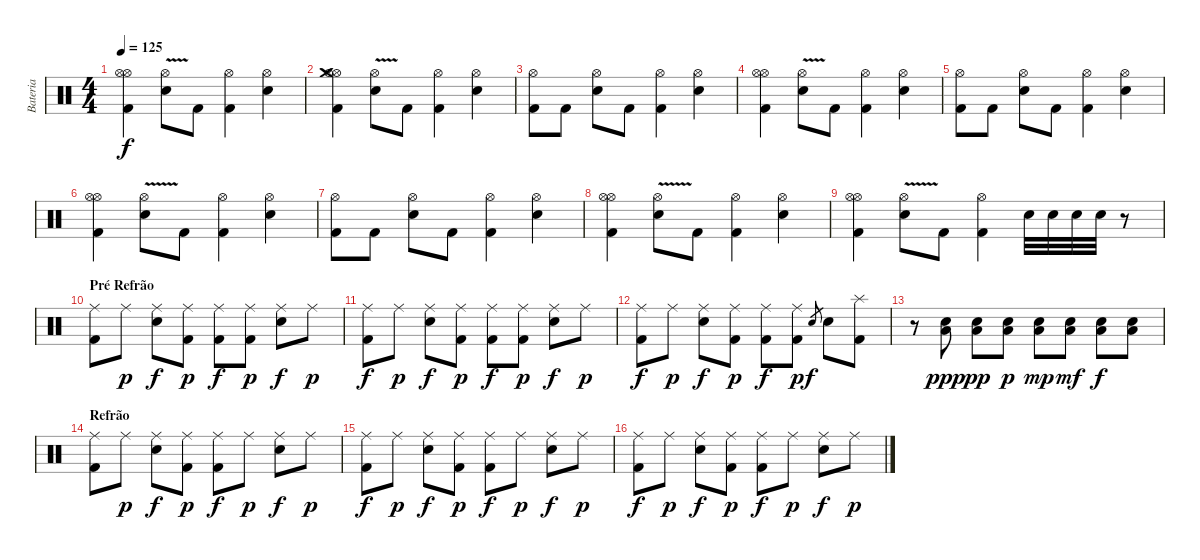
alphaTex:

\track ("Bateria" "Bateria") {instrument percussion}
\staff {score}
\articulation defaults
\ts (4 4)
\tempo 125
\clef neutral
\ks c
("Hi-Hat (open)" "Hi-Hat (open)" "Kick (hit) 2").4{dy f} ("Hi-Hat (open)"{v} "Electric Snare (hit)").8 "Kick (hit) 2".8 ("Hi-Hat (open)" "Kick (hit) 2").4 ("Electric Snare (hit)" "Hi-Hat (open)").4 |
("Hi-Hat (open)" "Hi-Hat (open)" "Crash medium (hit)" "Kick (hit) 2").4 ("Hi-Hat (open)"{v} "Electric Snare (hit)").8 "Kick (hit) 2".8 ("Hi-Hat (open)" "Kick (hit) 2").4 ("Electric Snare (hit)" "Hi-Hat (open)").4 |
("Hi-Hat (open)" "Kick (hit) 2").8 "Kick (hit) 2".8 ("Hi-Hat (open)" "Electric Snare (hit)").8 "Kick (hit) 2".8 ("Hi-Hat (open)" "Kick (hit) 2").4 ("Electric Snare (hit)" "Hi-Hat (open)").4 |
("Hi-Hat (open)" "Hi-Hat (open)" "Kick (hit) 2").4 ("Hi-Hat (open)"{v} "Electric Snare (hit)").8 "Kick (hit) 2".8 ("Hi-Hat (open)" "Kick (hit) 2").4 ("Electric Snare (hit)" "Hi-Hat (open)").4 |
("Hi-Hat (open)" "Kick (hit) 2").8 "Kick (hit) 2".8 ("Hi-Hat (open)" "Electric Snare (hit)").8 "Kick (hit) 2".8 ("Hi-Hat (open)" "Kick (hit) 2").4 ("Electric Snare (hit)" "Hi-Hat (open)").4 |
("Hi-Hat (open)" "Hi-Hat (open)" "Kick (hit) 2").4 ("Hi-Hat (open)"{v} "Electric Snare (hit)").8 "Kick (hit) 2".8 ("Hi-Hat (open)" "Kick (hit) 2").4 ("Electric Snare (hit)" "Hi-Hat (open)").4 |
("Hi-Hat (open)" "Kick (hit) 2").8 "Kick (hit) 2".8 ("Hi-Hat (open)" "Electric Snare (hit)").8 "Kick (hit) 2".8 ("Hi-Hat (open)" "Kick (hit) 2").4 ("Electric Snare (hit)" "Hi-Hat (open)").4 |
("Hi-Hat (open)" "Hi-Hat (open)" "Kick (hit) 2").4 ("Hi-Hat (open)"{v} "Electric Snare (hit)").8 "Kick (hit) 2".8 ("Hi-Hat (open)" "Kick (hit) 2").4 ("Electric Snare (hit)" "Hi-Hat (open)").4 |
("Hi-Hat (open)" "Hi-Hat (open)" "Kick (hit) 2").4 ("Hi-Hat (open)"{v} "Electric Snare (hit)").8 "Kick (hit) 2".8 ("Hi-Hat (open)" "Kick (hit) 2").4 "Electric Snare (hit)".32 "Electric Snare (hit)".32 "Electric Snare (hit)".32 "Electric Snare (hit)".32 r.8 |
\section ("" "Pré Refrão")
("Ride (middle)" "Kick (hit) 2").8 "Ride (middle)".8{dy p} ("Ride (middle)" "Electric Snare (hit)").8{dy f} ("Ride (middle)" "Kick (hit) 2").8{dy p} ("Ride (middle)" "Kick (hit) 2").8{dy f} ("Ride (middle)" "Kick (hit) 2").8{dy p} ("Ride (middle)" "Electric Snare (hit)").8{dy f} "Ride (middle)".8{dy p} |
("Ride (middle)" "Kick (hit) 2").8{dy f} "Ride (middle)".8{dy p} ("Ride (middle)" "Electric Snare (hit)").8{dy f} ("Ride (middle)" "Kick (hit) 2").8{dy p} ("Ride (middle)" "Kick (hit) 2").8{dy f} ("Ride (middle)" "Kick (hit) 2").8{dy p} ("Ride (middle)" "Electric Snare (hit)").8{dy f} "Ride (middle)".8{dy p} |
("Ride (middle)" "Kick (hit) 2").8{dy f} "Ride (middle)".8{dy p} ("Ride (middle)" "Electric Snare (hit)").8{dy f} ("Ride (middle)" "Kick (hit) 2").8{dy p} ("Ride (middle)" "Kick (hit) 2").8{dy f} ("Ride (middle)" "Kick (hit) 2").8{dy p} "Electric Snare (hit)".8{gr dy f} "Electric Snare (hit)".8 ("Splash (hit)" "Kick (hit) 2").8 |
r.8 ("Snare (hit)" "Low Floor Tom (hit)").8{dy ppp} ("Electric Snare (hit)" "Low Floor Tom (hit)").8{dy pp} ("Electric Snare (hit)" "Low Floor Tom (hit)").8{dy p} ("Electric Snare (hit)" "Low Floor Tom (hit)").8{dy mp} ("Electric Snare (hit)" "Low Floor Tom (hit)").8{dy mf} ("Electric Snare (hit)" "Low Floor Tom (hit)").8{dy f} ("Electric Snare (hit)" "Low Floor Tom (hit)").8 |
\section ("" "Refrão")
("Ride (middle)" "Kick (hit) 2").8 "Ride (middle)".8{dy p} ("Ride (middle)" "Electric Snare (hit)").8{dy f} ("Ride (middle)" "Kick (hit) 2").8{dy p} ("Ride (middle)" "Kick (hit) 2").8{dy f} "Ride (middle)".8{dy p} ("Ride (middle)" "Electric Snare (hit)").8{dy f} "Ride (middle)".8{dy p} |
("Ride (middle)" "Kick (hit) 2").8{dy f} "Ride (middle)".8{dy p} ("Ride (middle)" "Electric Snare (hit)").8{dy f} ("Ride (middle)" "Kick (hit) 2").8{dy p} ("Ride (middle)" "Kick (hit) 2").8{dy f} "Ride (middle)".8{dy p} ("Ride (middle)" "Electric Snare (hit)").8{dy f} "Ride (middle)".8{dy p} |
("Ride (middle)" "Kick (hit) 2").8{dy f} "Ride (middle)".8{dy p} ("Ride (middle)" "Electric Snare (hit)").8{dy f} ("Ride (middle)" "Kick (hit) 2").8{dy p} ("Ride (middle)" "Kick (hit) 2").8{dy f} "Ride (middle)".8{dy p} ("Ride (middle)" "Electric Snare (hit)").8{dy f} "Ride (middle)".8{dy p}
